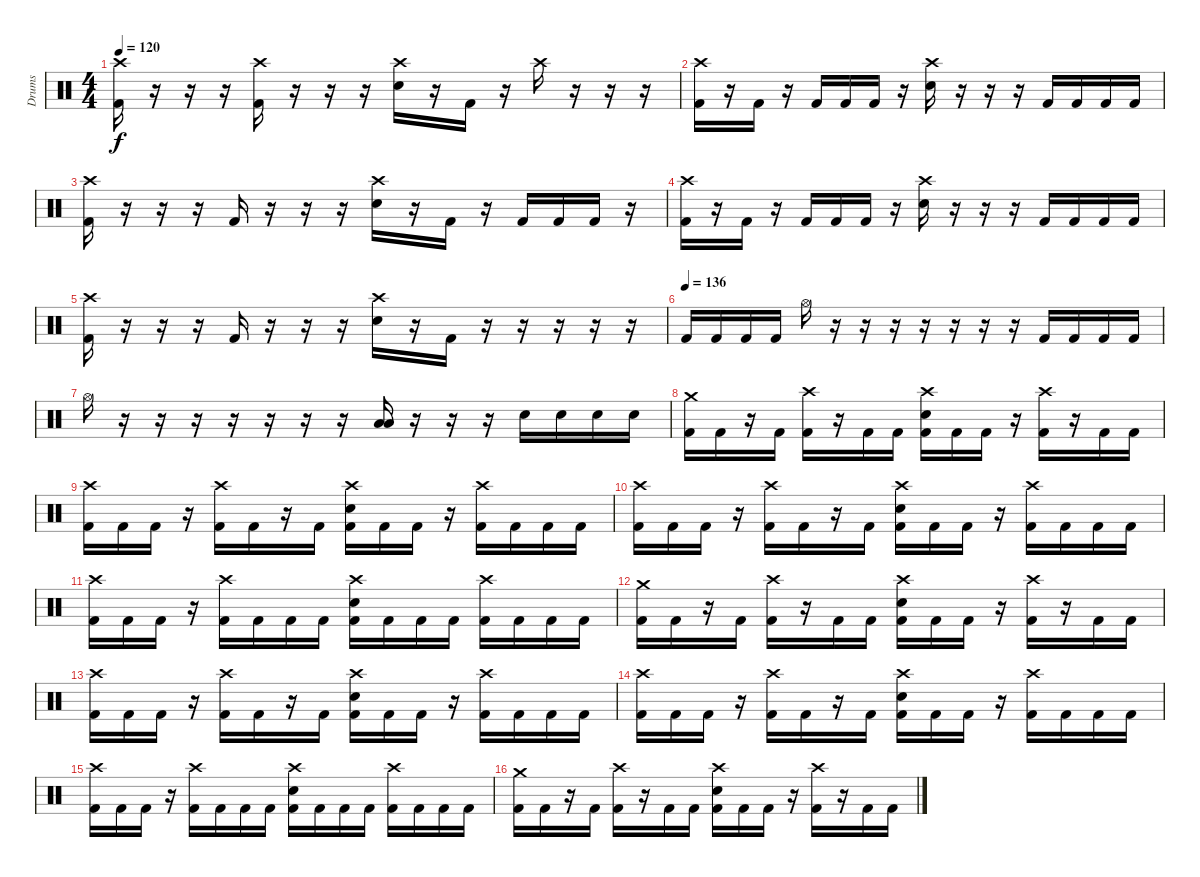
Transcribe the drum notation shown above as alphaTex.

\track ("Drums" "Drums") {instrument percussion}
\staff {score}
\articulation defaults
\ts (4 4)
\tempo 120
\clef neutral
\ks c
("Crash high (hit)" "Kick (hit) 2").16{dy f} r.16 r.16 r.16 ("Crash high (hit)" "Kick (hit) 2").16 r.16 r.16 r.16 ("Crash high (hit)" "Snare (hit) 2").16 r.16 "Kick (hit) 2".16 r.16 "Crash high (hit)".16 r.16 r.16 r.16 |
("Crash high (hit)" "Kick (hit) 2").16 r.16 "Kick (hit) 2".16 r.16 "Kick (hit) 2".16 "Kick (hit) 2".16 "Kick (hit) 2".16 r.16 ("Crash high (hit)" "Snare (hit) 2").16 r.16 r.16 r.16 "Kick (hit) 2".16 "Kick (hit) 2".16 "Kick (hit) 2".16 "Kick (hit) 2".16 |
("Crash high (hit)" "Kick (hit) 2").16 r.16 r.16 r.16 "Kick (hit) 2".16 r.16 r.16 r.16 ("Crash high (hit)" "Snare (hit) 2").16 r.16 "Kick (hit) 2".16 r.16 "Kick (hit) 2".16 "Kick (hit) 2".16 "Kick (hit) 2".16 r.16 |
("Crash high (hit)" "Kick (hit) 2").16 r.16 "Kick (hit) 2".16 r.16 "Kick (hit) 2".16 "Kick (hit) 2".16 "Kick (hit) 2".16 r.16 ("Crash high (hit)" "Snare (hit) 2").16 r.16 r.16 r.16 "Kick (hit) 2".16 "Kick (hit) 2".16 "Kick (hit) 2".16 "Kick (hit) 2".16 |
("Crash high (hit)" "Kick (hit) 2").16 r.16 r.16 r.16 "Kick (hit) 2".16 r.16 r.16 r.16 ("Crash high (hit)" "Snare (hit) 2").16 r.16 "Kick (hit) 2".16 r.16 r.16 r.16 r.16 r.16 |
\tempo (136)
"Kick (hit) 2".16 "Kick (hit) 2".16 "Kick (hit) 2".16 "Kick (hit) 2".16 "Hi-Hat (open)".16 r.16 r.16 r.16 r.16 r.16 r.16 r.16 "Kick (hit) 2".16 "Kick (hit) 2".16 "Kick (hit) 2".16 "Kick (hit) 2".16 |
"Hi-Hat (open)".16 r.16 r.16 r.16 r.16 r.16 r.16 r.16 ("Low Tom (hit)" "Low Tom (hit)").16 r.16 r.16 r.16 "Snare (hit) 2".16 "Snare (hit) 2".16 "Snare (hit) 2".16 "Snare (hit) 2".16 |
("Crash medium (hit)" "Kick (hit) 2").16 "Kick (hit) 2".16 r.16 "Kick (hit) 2".16 ("Crash high (hit)" "Kick (hit) 2").16 r.16 "Kick (hit) 2".16 "Kick (hit) 2".16 ("Crash high (hit)" "Snare (hit) 2" "Kick (hit) 2").16 "Kick (hit) 2".16 "Kick (hit) 2".16 r.16 ("Crash high (hit)" "Kick (hit) 2").16 r.16 "Kick (hit) 2".16 "Kick (hit) 2".16 |
("Crash high (hit)" "Kick (hit) 2").16 "Kick (hit) 2".16 "Kick (hit) 2".16 r.16 ("Crash high (hit)" "Kick (hit) 2").16 "Kick (hit) 2".16 r.16 "Kick (hit) 2".16 ("Crash high (hit)" "Snare (hit) 2" "Kick (hit) 2").16 "Kick (hit) 2".16 "Kick (hit) 2".16 r.16 ("Crash high (hit)" "Kick (hit) 2").16 "Kick (hit) 2".16 "Kick (hit) 2".16 "Kick (hit) 2".16 |
("Crash high (hit)" "Kick (hit) 2").16 "Kick (hit) 2".16 "Kick (hit) 2".16 r.16 ("Crash high (hit)" "Kick (hit) 2").16 "Kick (hit) 2".16 r.16 "Kick (hit) 2".16 ("Crash high (hit)" "Snare (hit) 2" "Kick (hit) 2").16 "Kick (hit) 2".16 "Kick (hit) 2".16 r.16 ("Crash high (hit)" "Kick (hit) 2").16 "Kick (hit) 2".16 "Kick (hit) 2".16 "Kick (hit) 2".16 |
("Crash high (hit)" "Kick (hit) 2").16 "Kick (hit) 2".16 "Kick (hit) 2".16 r.16 ("Crash high (hit)" "Kick (hit) 2").16 "Kick (hit) 2".16 "Kick (hit) 2".16 "Kick (hit) 2".16 ("Crash high (hit)" "Snare (hit) 2" "Kick (hit) 2").16 "Kick (hit) 2".16 "Kick (hit) 2".16 "Kick (hit) 2".16 ("Crash high (hit)" "Kick (hit) 2").16 "Kick (hit) 2".16 "Kick (hit) 2".16 "Kick (hit) 2".16 |
("Crash medium (hit)" "Kick (hit) 2").16 "Kick (hit) 2".16 r.16 "Kick (hit) 2".16 ("Crash high (hit)" "Kick (hit) 2").16 r.16 "Kick (hit) 2".16 "Kick (hit) 2".16 ("Crash high (hit)" "Snare (hit) 2" "Kick (hit) 2").16 "Kick (hit) 2".16 "Kick (hit) 2".16 r.16 ("Crash high (hit)" "Kick (hit) 2").16 r.16 "Kick (hit) 2".16 "Kick (hit) 2".16 |
("Crash high (hit)" "Kick (hit) 2").16 "Kick (hit) 2".16 "Kick (hit) 2".16 r.16 ("Crash high (hit)" "Kick (hit) 2").16 "Kick (hit) 2".16 r.16 "Kick (hit) 2".16 ("Crash high (hit)" "Snare (hit) 2" "Kick (hit) 2").16 "Kick (hit) 2".16 "Kick (hit) 2".16 r.16 ("Crash high (hit)" "Kick (hit) 2").16 "Kick (hit) 2".16 "Kick (hit) 2".16 "Kick (hit) 2".16 |
("Crash high (hit)" "Kick (hit) 2").16 "Kick (hit) 2".16 "Kick (hit) 2".16 r.16 ("Crash high (hit)" "Kick (hit) 2").16 "Kick (hit) 2".16 r.16 "Kick (hit) 2".16 ("Crash high (hit)" "Snare (hit) 2" "Kick (hit) 2").16 "Kick (hit) 2".16 "Kick (hit) 2".16 r.16 ("Crash high (hit)" "Kick (hit) 2").16 "Kick (hit) 2".16 "Kick (hit) 2".16 "Kick (hit) 2".16 |
("Crash high (hit)" "Kick (hit) 2").16 "Kick (hit) 2".16 "Kick (hit) 2".16 r.16 ("Crash high (hit)" "Kick (hit) 2").16 "Kick (hit) 2".16 "Kick (hit) 2".16 "Kick (hit) 2".16 ("Crash high (hit)" "Snare (hit) 2" "Kick (hit) 2").16 "Kick (hit) 2".16 "Kick (hit) 2".16 "Kick (hit) 2".16 ("Crash high (hit)" "Kick (hit) 2").16 "Kick (hit) 2".16 "Kick (hit) 2".16 "Kick (hit) 2".16 |
("Crash medium (hit)" "Kick (hit) 2").16 "Kick (hit) 2".16 r.16 "Kick (hit) 2".16 ("Crash high (hit)" "Kick (hit) 2").16 r.16 "Kick (hit) 2".16 "Kick (hit) 2".16 ("Crash high (hit)" "Snare (hit) 2" "Kick (hit) 2").16 "Kick (hit) 2".16 "Kick (hit) 2".16 r.16 ("Crash high (hit)" "Kick (hit) 2").16 r.16 "Kick (hit) 2".16 "Kick (hit) 2".16
